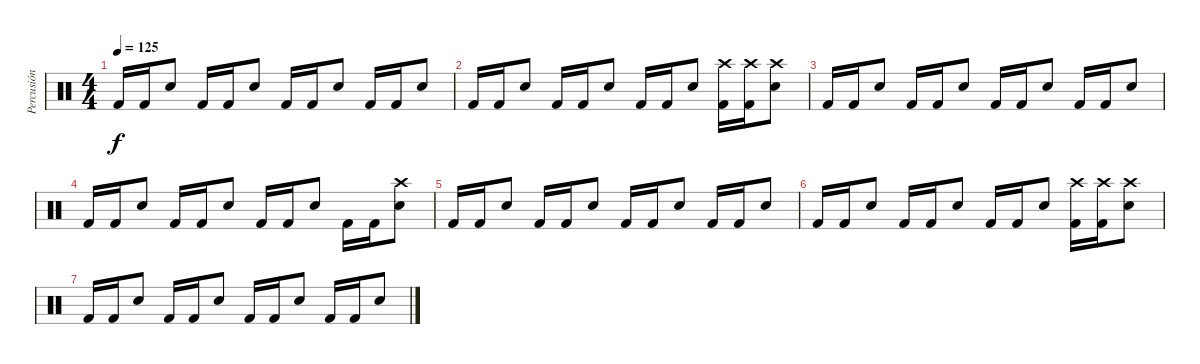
\track ("Percusión" "Percusión") {instrument percussion}
\staff {score}
\articulation defaults
\ts (4 4)
\tempo 125
\clef neutral
\ks c "Kick (hit) 2".16{dy f} "Kick (hit) 2".16 "Snare (hit) 2".8 "Kick (hit) 2".16 "Kick (hit) 2".16 "Snare (hit) 2".8 "Kick (hit) 2".16 "Kick (hit) 2".16 "Snare (hit) 2".8 "Kick (hit) 2".16 "Kick (hit) 2".16 "Snare (hit) 2".8
|
"Kick (hit) 2".16 "Kick (hit) 2".16 "Snare (hit) 2".8 "Kick (hit) 2".16 "Kick (hit) 2".16 "Snare (hit) 2".8 "Kick (hit) 2".16 "Kick (hit) 2".16 "Snare (hit) 2".8 ("Kick (hit) 2" "Crash high (hit)").16 ("Kick (hit) 2" "Crash high (hit)").16 ("Snare (hit) 2" "Crash high (hit)").8 |
"Kick (hit) 2".16 "Kick (hit) 2".16 "Snare (hit) 2".8 "Kick (hit) 2".16 "Kick (hit) 2".16 "Snare (hit) 2".8 "Kick (hit) 2".16 "Kick (hit) 2".16 "Snare (hit) 2".8 "Kick (hit) 2".16 "Kick (hit) 2".16 "Snare (hit) 2".8 |
"Kick (hit) 2".16 "Kick (hit) 2".16 "Snare (hit) 2".8 "Kick (hit) 2".16 "Kick (hit) 2".16 "Snare (hit) 2".8 "Kick (hit) 2".16 "Kick (hit) 2".16 "Snare (hit) 2".8 "Kick (hit) 2".16 "Kick (hit) 2".16 ("Snare (hit) 2" "Crash high (hit)").8 |
"Kick (hit) 2".16 "Kick (hit) 2".16 "Snare (hit) 2".8 "Kick (hit) 2".16 "Kick (hit) 2".16 "Snare (hit) 2".8 "Kick (hit) 2".16 "Kick (hit) 2".16 "Snare (hit) 2".8 "Kick (hit) 2".16 "Kick (hit) 2".16 "Snare (hit) 2".8 |
"Kick (hit) 2".16 "Kick (hit) 2".16 "Snare (hit) 2".8 "Kick (hit) 2".16 "Kick (hit) 2".16 "Snare (hit) 2".8 "Kick (hit) 2".16 "Kick (hit) 2".16 "Snare (hit) 2".8 ("Kick (hit) 2" "Crash high (hit)").16 ("Kick (hit) 2" "Crash high (hit)").16 ("Snare (hit) 2" "Crash high (hit)").8 |
"Kick (hit) 2".16 "Kick (hit) 2".16 "Snare (hit) 2".8 "Kick (hit) 2".16 "Kick (hit) 2".16 "Snare (hit) 2".8 "Kick (hit) 2".16 "Kick (hit) 2".16 "Snare (hit) 2".8 "Kick (hit) 2".16 "Kick (hit) 2".16 "Snare (hit) 2".8
